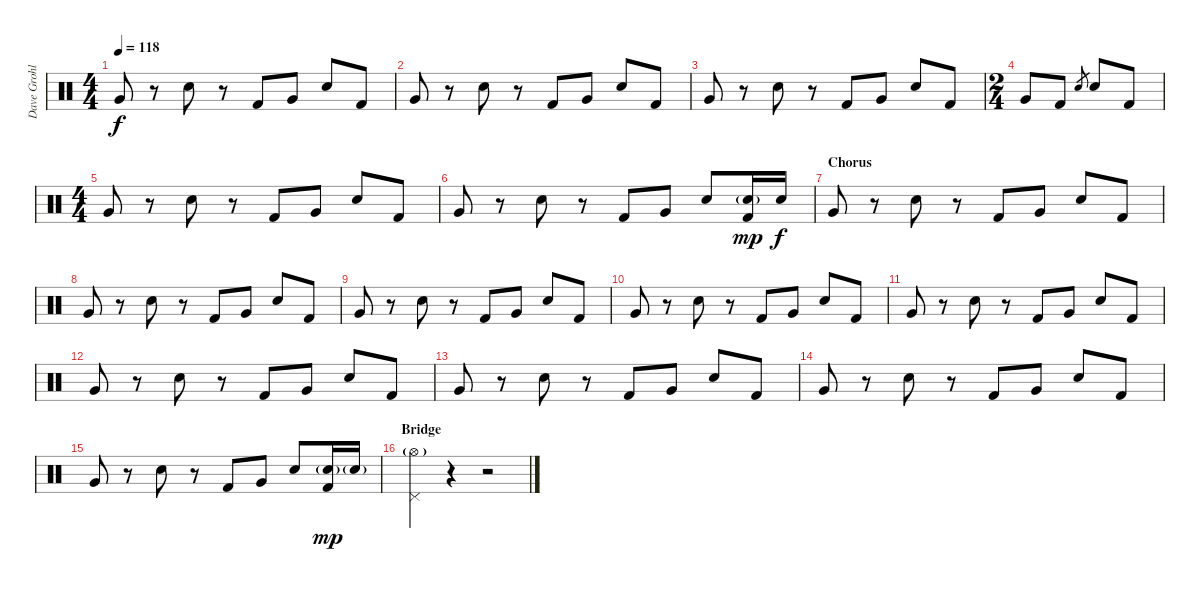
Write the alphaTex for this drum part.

\track ("Dave Grohl - Drums" "Dave Grohl") {instrument percussion}
\staff {score}
\articulation defaults
\ts (4 4)
\tempo 118
\clef neutral
\ks c "Very Low Tom (hit)".8{dy f}
r.8 "Electric Snare (hit)".8 r.8 "Kick (hit) 2".8 "Very Low Tom (hit)".8 "Electric Snare (hit)".8 "Kick (hit) 2".8 |
"Very Low Tom (hit)".8 r.8 "Electric Snare (hit)".8 r.8 "Kick (hit) 2".8 "Very Low Tom (hit)".8 "Electric Snare (hit)".8 "Kick (hit) 2".8 |
"Very Low Tom (hit)".8 r.8 "Electric Snare (hit)".8 r.8 "Kick (hit) 2".8 "Very Low Tom (hit)".8 "Electric Snare (hit)".8 "Kick (hit) 2".8 |
\ts (2 4)
"Very Low Tom (hit)".8 "Kick (hit) 2".8 "Electric Snare (hit)".8{gr} "Electric Snare (hit)".8 "Kick (hit) 2".8 |
\ts (4 4)
"Very Low Tom (hit)".8 r.8 "Electric Snare (hit)".8 r.8 "Kick (hit) 2".8 "Very Low Tom (hit)".8 "Electric Snare (hit)".8 "Kick (hit) 2".8 |
"Very Low Tom (hit)".8 r.8 "Electric Snare (hit)".8 r.8 "Kick (hit) 2".8 "Very Low Tom (hit)".8 "Electric Snare (hit)".8 ("Electric Snare (hit)"{g} "Kick (hit) 2").16{dy mp} "Electric Snare (hit)".16{dy f} |
\section ("" "Chorus")
"Very Low Tom (hit)".8 r.8 "Electric Snare (hit)".8 r.8 "Kick (hit) 2".8 "Very Low Tom (hit)".8 "Electric Snare (hit)".8 "Kick (hit) 2".8 |
"Very Low Tom (hit)".8 r.8 "Electric Snare (hit)".8 r.8 "Kick (hit) 2".8 "Very Low Tom (hit)".8 "Electric Snare (hit)".8 "Kick (hit) 2".8 |
"Very Low Tom (hit)".8 r.8 "Electric Snare (hit)".8 r.8 "Kick (hit) 2".8 "Very Low Tom (hit)".8 "Electric Snare (hit)".8 "Kick (hit) 2".8 |
"Very Low Tom (hit)".8 r.8 "Electric Snare (hit)".8 r.8 "Kick (hit) 2".8 "Very Low Tom (hit)".8 "Electric Snare (hit)".8 "Kick (hit) 2".8 |
"Very Low Tom (hit)".8 r.8 "Electric Snare (hit)".8 r.8 "Kick (hit) 2".8 "Very Low Tom (hit)".8 "Electric Snare (hit)".8 "Kick (hit) 2".8 |
"Very Low Tom (hit)".8 r.8 "Electric Snare (hit)".8 r.8 "Kick (hit) 2".8 "Very Low Tom (hit)".8 "Electric Snare (hit)".8 "Kick (hit) 2".8 |
"Very Low Tom (hit)".8 r.8 "Electric Snare (hit)".8 r.8 "Kick (hit) 2".8 "Very Low Tom (hit)".8 "Electric Snare (hit)".8 "Kick (hit) 2".8 |
"Very Low Tom (hit)".8 r.8 "Electric Snare (hit)".8 r.8 "Kick (hit) 2".8 "Very Low Tom (hit)".8 "Electric Snare (hit)".8 "Kick (hit) 2".8 |
"Very Low Tom (hit)".8 r.8 "Electric Snare (hit)".8 r.8 "Kick (hit) 2".8 "Very Low Tom (hit)".8 "Electric Snare (hit)".8 ("Kick (hit) 2" "Electric Snare (hit)"{g}).16{dy mp} "Electric Snare (hit)"{g}.16 |
\section ("" "Bridge")
("Pedal Hi-Hat (hit)" "Hi-Hat (open)"{g}).4 r.4 r.2
